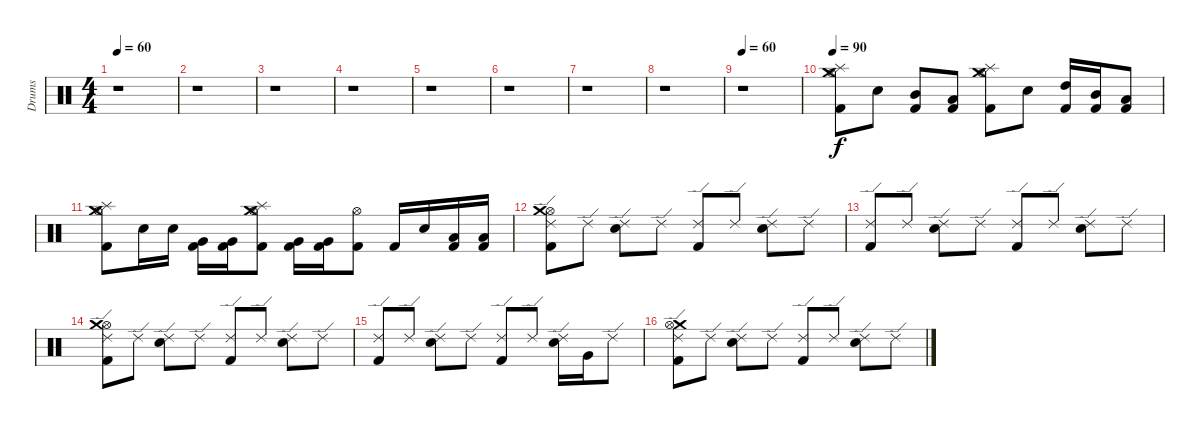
\track ("Drums" "Drums") {instrument percussion}
\staff {score}
\articulation defaults
\ts (4 4)
\tempo 60
\clef neutral
\ks c
r.1{dy f} |
r.1 |
r.1 |
r.1 |
r.1 |
r.1 |
r.1 |
r.1 |
\tempo 60
r.1 |
\tempo 60
\tempo 90
("Crash medium (hit)" "Splash (hit)" "Hi-Hat (open)" "Kick (hit) 2").8{volume 16} "Electric Snare (hit)".8 ("Mid Tom (hit)" "Kick (hit) 2").8 ("Kick (hit) 2" "Low Tom (hit)").8 ("Hi-Hat (open)" "Crash medium (hit)" "Splash (hit)" "Kick (hit) 2").8 "Electric Snare (hit)".8 ("High Tom (hit)" "Kick (hit) 2").16 ("Mid Tom (hit)" "Kick (hit) 2").16 ("Low Tom (hit)" "Kick (hit) 2").8 |
("Hi-Hat (open)" "Crash medium (hit)" "Splash (hit)" "Kick (hit) 2").8 "Electric Snare (hit)".16 "Electric Snare (hit)".16 ("Very Low Tom (hit)" "Kick (hit) 2").16 ("Very Low Tom (hit)" "Kick (hit) 2").16 ("Splash (hit)" "Crash medium (hit)" "Hi-Hat (open)" "Kick (hit) 2").8 ("Kick (hit) 2" "Very Low Tom (hit)").16 ("Kick (hit) 2" "Very Low Tom (hit)").16 ("Hi-Hat (open)" "Kick (hit) 2").8 "Kick (hit) 2".16 "Electric Snare (hit)".16 ("Kick (hit) 2" "Low Tom (hit)").16 ("Kick (hit) 2" "Low Tom (hit)").16 |
("Hi-Hat (open)" "Crash medium (hit)" "Kick (hit) 2" "Ride (edge) 2").8 "Ride (edge) 2".8 ("Electric Snare (hit)" "Ride (edge) 2").8 "Ride (edge) 2".8 ("Kick (hit) 2" "Ride (edge) 2").8 "Ride (edge) 2".8 ("Electric Snare (hit)" "Ride (edge) 2").8 "Ride (edge) 2".8 |
("Kick (hit) 2" "Ride (edge) 2").8 "Ride (edge) 2".8 ("Electric Snare (hit)" "Ride (edge) 2").8 "Ride (edge) 2".8 ("Kick (hit) 2" "Ride (edge) 2").8 "Ride (edge) 2".8 ("Electric Snare (hit)" "Ride (edge) 2").8 "Ride (edge) 2".8 |
("Hi-Hat (open)" "Crash medium (hit)" "Kick (hit) 2" "Ride (edge) 2").8 "Ride (edge) 2".8 ("Electric Snare (hit)" "Ride (edge) 2").8 "Ride (edge) 2".8 ("Kick (hit) 2" "Ride (edge) 2").8 "Ride (edge) 2".8 ("Electric Snare (hit)" "Ride (edge) 2").8 "Ride (edge) 2".8 |
("Kick (hit) 2" "Ride (edge) 2").8 "Ride (edge) 2".8 ("Electric Snare (hit)" "Ride (edge) 2").8 "Ride (edge) 2".8 ("Kick (hit) 2" "Ride (edge) 2").8 "Ride (edge) 2".8 ("Electric Snare (hit)" "Ride (edge) 2").16 "Very Low Tom (hit)".16 "Ride (edge) 2".8 |
("Crash medium (hit)" "Hi-Hat (open)" "Kick (hit) 2" "Ride (edge) 2").8 "Ride (edge) 2".8 ("Electric Snare (hit)" "Ride (edge) 2").8 "Ride (edge) 2".8 ("Kick (hit) 2" "Ride (edge) 2").8 "Ride (edge) 2".8 ("Electric Snare (hit)" "Ride (edge) 2").8 "Ride (edge) 2".8
